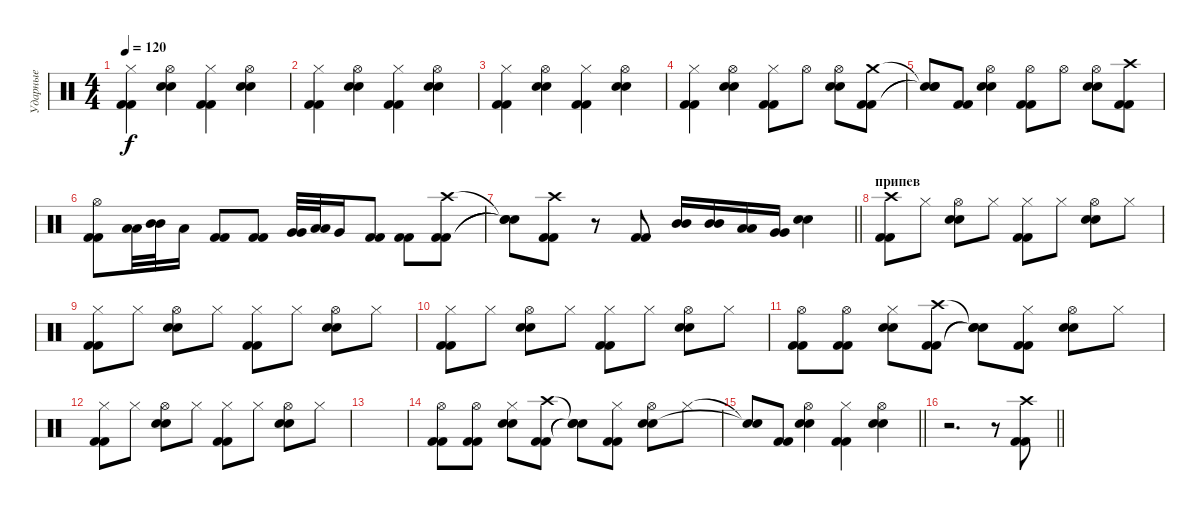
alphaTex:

\track ("Ударные" "Ударные") {instrument percussion}
\staff {score}
\articulation defaults
\ts (4 4)
\tempo 120
\clef neutral
\ks c
("Hi-Hat (closed)" "Kick (hit) 2" "Kick (hit) 2").4{dy f} ("Hi-Hat (open)" "Electric Snare (hit)" "Electric Snare (hit)").4 ("Hi-Hat (closed)" "Kick (hit) 2" "Kick (hit) 2").4 ("Hi-Hat (open)" "Electric Snare (hit)" "Electric Snare (hit)").4 |
("Hi-Hat (closed)" "Kick (hit) 2" "Kick (hit) 2").4 ("Hi-Hat (open)" "Electric Snare (hit)" "Electric Snare (hit)").4 ("Hi-Hat (closed)" "Kick (hit) 2" "Kick (hit) 2").4 ("Hi-Hat (open)" "Electric Snare (hit)" "Electric Snare (hit)").4 |
("Hi-Hat (closed)" "Kick (hit) 2" "Kick (hit) 2").4 ("Hi-Hat (open)" "Electric Snare (hit)" "Electric Snare (hit)").4 ("Hi-Hat (closed)" "Kick (hit) 2" "Kick (hit) 2").4 ("Hi-Hat (open)" "Electric Snare (hit)" "Electric Snare (hit)").4 |
("Hi-Hat (closed)" "Kick (hit) 2" "Kick (hit) 2").4 ("Hi-Hat (open)" "Electric Snare (hit)" "Electric Snare (hit)").4 ("Hi-Hat (closed)" "Kick (hit) 2" "Kick (hit) 2").8 "Hi-Hat (open)".8 ("Hi-Hat (open)" "Electric Snare (hit)" "Electric Snare (hit)").8 ("Crash medium (hit)" "Kick (hit) 2" "Kick (hit) 2").8 |
("Snare (hit)"{t} "Snare (hit)"{t} "Snare (hit)"{t}).8 ("Kick (hit) 2" "Kick (hit) 2").8 ("Hi-Hat (open)" "Electric Snare (hit)" "Electric Snare (hit)").4 ("Hi-Hat (open)" "Kick (hit) 2" "Kick (hit) 2").8 "Hi-Hat (open)".8 ("Hi-Hat (open)" "Electric Snare (hit)" "Electric Snare (hit)").8 ("Crash high (hit)" "Kick (hit) 2" "Kick (hit) 2").8 |
("Hi-Hat (open)" "Kick (hit) 2" "Kick (hit) 2").8 ("Low Tom (hit)" "Low Tom (hit)").32 ("Mid Tom (hit)" "Mid Tom (hit)").32 "Low Tom (hit)".16 ("Kick (hit) 2" "Kick (hit) 2").8 ("Kick (hit) 2" "Kick (hit) 2").8 ("Very Low Tom (hit)" "Very Low Tom (hit)").32 ("Low Tom (hit)" "Low Tom (hit)").32 "Very Low Tom (hit)".16 ("Kick (hit) 2" "Kick (hit) 2").8 ("Kick (hit) 2" "Kick (hit) 2").8 ("Crash high (hit)" "Kick (hit) 2" "Kick (hit) 2").8 |
\barLineRight lightlight
("Snare (hit)"{t} "Snare (hit)"{t} "Snare (hit)"{t}).8 ("Crash high (hit)" "Kick (hit) 2" "Kick (hit) 2").8 r.8 ("Kick (hit) 2" "Kick (hit) 2").8 ("Mid Tom (hit)" "Mid Tom (hit)").16 ("Mid Tom (hit)" "Mid Tom (hit)").16 ("Low Tom (hit)" "Low Tom (hit)").16 ("Very Low Tom (hit)" "Very Low Tom (hit)").16 ("Electric Snare (hit)" "Electric Snare (hit)").4 |
\section ("" "припев")
("Crash high (hit)" "Kick (hit) 2" "Kick (hit) 2").8 "Hi-Hat (closed)".8 ("Hi-Hat (open)" "Electric Snare (hit)" "Electric Snare (hit)").8 "Hi-Hat (closed)".8 ("Hi-Hat (closed)" "Kick (hit) 2" "Kick (hit) 2").8 "Hi-Hat (closed)".8 ("Hi-Hat (open)" "Electric Snare (hit)" "Electric Snare (hit)").8 "Hi-Hat (closed)".8 |
("Hi-Hat (closed)" "Kick (hit) 2" "Kick (hit) 2").8 "Hi-Hat (closed)".8 ("Hi-Hat (open)" "Electric Snare (hit)" "Electric Snare (hit)").8 "Hi-Hat (closed)".8 ("Hi-Hat (closed)" "Kick (hit) 2" "Kick (hit) 2").8 "Hi-Hat (closed)".8 ("Hi-Hat (open)" "Electric Snare (hit)" "Electric Snare (hit)").8 "Hi-Hat (closed)".8 |
("Hi-Hat (closed)" "Kick (hit) 2" "Kick (hit) 2").8 "Hi-Hat (closed)".8 ("Hi-Hat (open)" "Electric Snare (hit)" "Electric Snare (hit)").8 "Hi-Hat (closed)".8 ("Hi-Hat (closed)" "Kick (hit) 2" "Kick (hit) 2").8 "Hi-Hat (closed)".8 ("Hi-Hat (open)" "Electric Snare (hit)" "Electric Snare (hit)").8 "Hi-Hat (closed)".8 |
("Hi-Hat (open)" "Kick (hit) 2" "Kick (hit) 2").8 ("Hi-Hat (open)" "Kick (hit) 2" "Kick (hit) 2").8 ("Hi-Hat (closed)" "Electric Snare (hit)" "Electric Snare (hit)").8 ("Crash high (hit)" "Kick (hit) 2" "Kick (hit) 2").8 ("Snare (hit)"{t} "Snare (hit)"{t} "Snare (hit)"{t}).8 ("Hi-Hat (closed)" "Kick (hit) 2" "Kick (hit) 2").8 ("Hi-Hat (open)" "Electric Snare (hit)" "Electric Snare (hit)").8 "Hi-Hat (closed)".8 |
("Hi-Hat (closed)" "Kick (hit) 2" "Kick (hit) 2").8 "Hi-Hat (closed)".8 ("Hi-Hat (open)" "Electric Snare (hit)" "Electric Snare (hit)").8 "Hi-Hat (closed)".8 ("Hi-Hat (closed)" "Kick (hit) 2" "Kick (hit) 2").8 "Hi-Hat (closed)".8 ("Hi-Hat (open)" "Electric Snare (hit)" "Electric Snare (hit)").8 "Hi-Hat (closed)".8 |
|
("Hi-Hat (open)" "Kick (hit) 2" "Kick (hit) 2").8 ("Hi-Hat (open)" "Kick (hit) 2" "Kick (hit) 2").8 ("Hi-Hat (closed)" "Electric Snare (hit)" "Electric Snare (hit)").8 ("Crash high (hit)" "Kick (hit) 2" "Kick (hit) 2").8 ("Snare (hit)"{t} "Snare (hit)"{t} "Snare (hit)"{t}).8 ("Hi-Hat (closed)" "Kick (hit) 2" "Kick (hit) 2").8 ("Hi-Hat (open)" "Electric Snare (hit)" "Electric Snare (hit)").8 "Hi-Hat (closed)".8 |
\barLineRight lightlight
("Snare (hit)"{t} "Snare (hit)"{t}).8 ("Kick (hit) 2" "Kick (hit) 2").8 ("Hi-Hat (open)" "Electric Snare (hit)" "Electric Snare (hit)").4 ("Hi-Hat (closed)" "Kick (hit) 2" "Kick (hit) 2").4 ("Hi-Hat (open)" "Electric Snare (hit)" "Electric Snare (hit)").4 |
\barLineRight lightlight
r.2{d} r.8 ("Crash high (hit)" "Kick (hit) 2" "Kick (hit) 2").8
